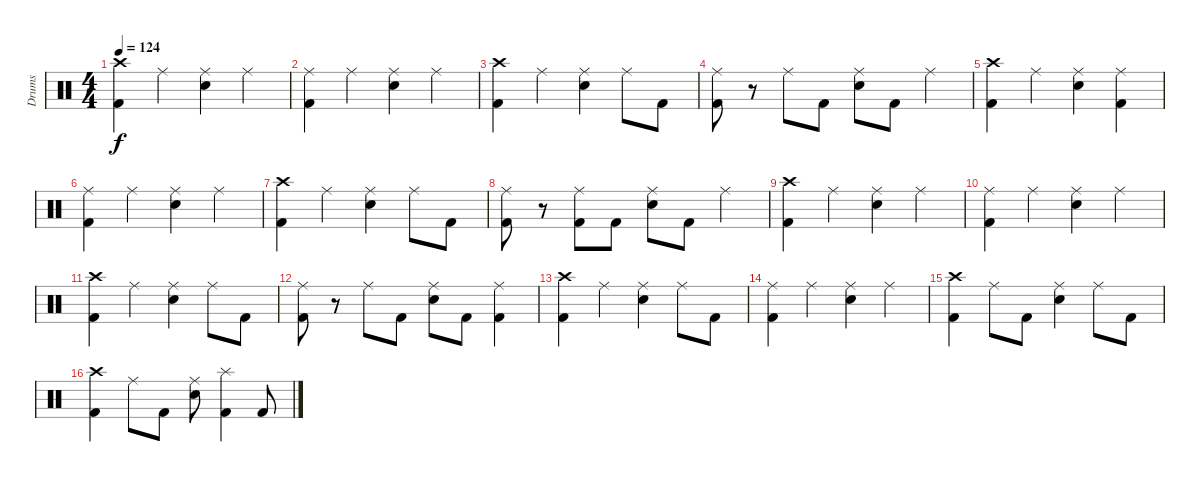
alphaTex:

\track ("Drums" "Drums") {instrument percussion}
\staff {score}
\articulation defaults
\ts (4 4)
\tempo 124
\clef neutral
\ks c
("Kick (hit) 2" "Crash high (hit)").4{dy f} "Ride (middle)".4 ("Snare (hit) 2" "Ride (middle)").4 "Ride (middle)".4 |
("Kick (hit) 2" "Ride (middle)").4 "Ride (middle)".4 ("Snare (hit) 2" "Ride (middle)").4 "Ride (middle)".4 |
("Kick (hit) 2" "Crash high (hit)").4 "Ride (middle)".4 ("Snare (hit) 2" "Ride (middle)").4 "Ride (middle)".8 "Kick (hit) 2".8 |
("Kick (hit) 2" "Ride (middle)").8 r.8 "Ride (middle)".8 "Kick (hit) 2".8 ("Snare (hit) 2" "Ride (middle)").8 "Kick (hit) 2".8 "Ride (middle)".4 |
("Kick (hit) 2" "Crash high (hit)").4 "Ride (middle)".4 ("Snare (hit) 2" "Ride (middle)").4 ("Kick (hit) 2" "Ride (middle)").4 |
("Kick (hit) 2" "Ride (middle)").4 "Ride (middle)".4 ("Snare (hit) 2" "Ride (middle)").4 "Ride (middle)".4 |
("Kick (hit) 2" "Crash high (hit)").4 "Ride (middle)".4 ("Snare (hit) 2" "Ride (middle)").4 "Ride (middle)".8 "Kick (hit) 2".8 |
("Kick (hit) 2" "Ride (middle)").8 r.8 ("Kick (hit) 2" "Ride (middle)").8 "Kick (hit) 2".8 ("Snare (hit) 2" "Ride (middle)").8 "Kick (hit) 2".8 "Ride (middle)".4 |
("Kick (hit) 2" "Crash high (hit)").4 "Ride (middle)".4 ("Snare (hit) 2" "Ride (middle)").4 "Ride (middle)".4 |
("Kick (hit) 2" "Ride (middle)").4 "Ride (middle)".4 ("Snare (hit) 2" "Ride (middle)").4 "Ride (middle)".4 |
("Kick (hit) 2" "Crash high (hit)").4 "Ride (middle)".4 ("Snare (hit) 2" "Ride (middle)").4 "Ride (middle)".8 "Kick (hit) 2".8 |
("Kick (hit) 2" "Ride (middle)").8 r.8 "Ride (middle)".8 "Kick (hit) 2".8 ("Snare (hit) 2" "Ride (middle)").8 "Kick (hit) 2".8 ("Kick (hit) 2" "Ride (middle)").4 |
("Kick (hit) 2" "Crash high (hit)").4 "Ride (middle)".4 ("Snare (hit) 2" "Ride (middle)").4 "Ride (middle)".8 "Kick (hit) 2".8 |
("Kick (hit) 2" "Ride (middle)").4 "Ride (middle)".4 ("Snare (hit) 2" "Ride (middle)").4 "Ride (middle)".4 |
("Kick (hit) 2" "Crash high (hit)").4 "Ride (middle)".8 "Kick (hit) 2".8 ("Snare (hit) 2" "Ride (middle)").4 "Ride (middle)".8 "Kick (hit) 2".8 |
("Kick (hit) 2" "Crash high (hit)").4 "Ride (middle)".8 "Kick (hit) 2".8 ("Snare (hit) 2" "Ride (middle)").8 ("Kick (hit) 2" "Splash (hit)").4 "Kick (hit) 2".8
